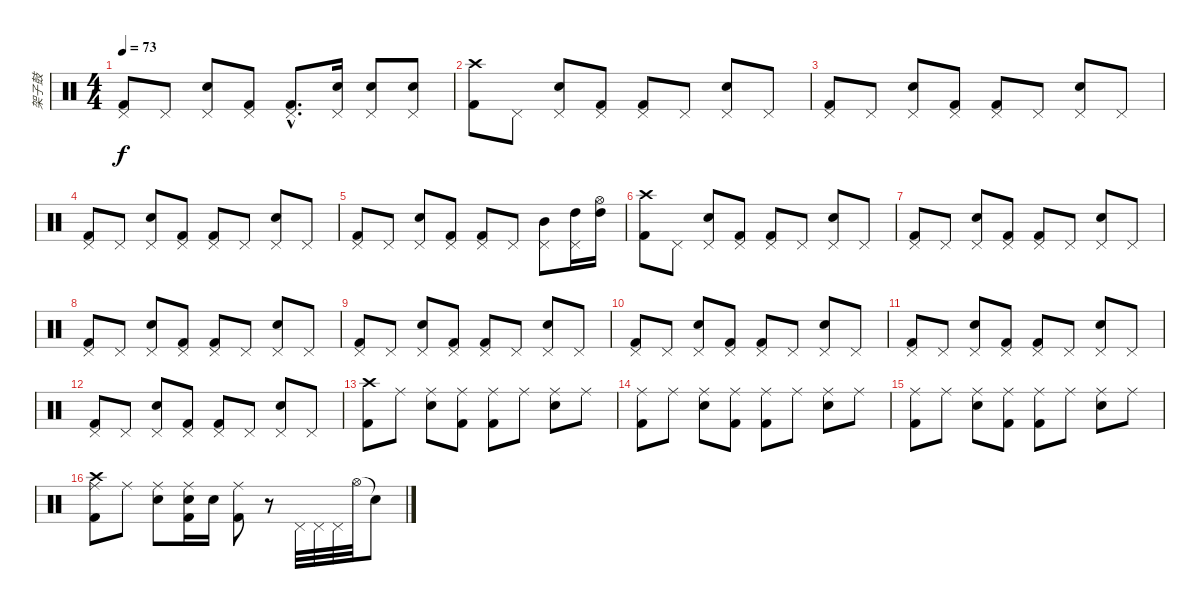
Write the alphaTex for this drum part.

\track ("架子鼓" "架子鼓") {instrument percussion}
\staff {score}
\articulation defaults
\ts (4 4)
\tempo 73
\clef neutral
\ks c
("Pedal Hi-Hat (hit)" "Kick (hit) 2").8{dy f} "Pedal Hi-Hat (hit)".8 ("Pedal Hi-Hat (hit)" "Electric Snare (hit)").8 ("Pedal Hi-Hat (hit)" "Kick (hit) 2").8 ("Pedal Hi-Hat (hit)"{hac} "Kick (hit) 2"{hac}).8{d} ("Pedal Hi-Hat (hit)" "Electric Snare (hit)").16 ("Pedal Hi-Hat (hit)" "Electric Snare (hit)").8 ("Pedal Hi-Hat (hit)" "Electric Snare (hit)").8 |
("Crash high (hit)" "Kick (hit) 2").8 "Pedal Hi-Hat (hit)".8 ("Pedal Hi-Hat (hit)" "Electric Snare (hit)").8 ("Pedal Hi-Hat (hit)" "Kick (hit) 2").8 ("Pedal Hi-Hat (hit)" "Kick (hit) 2").8 "Pedal Hi-Hat (hit)".8 ("Pedal Hi-Hat (hit)" "Electric Snare (hit)").8 "Pedal Hi-Hat (hit)".8 |
("Pedal Hi-Hat (hit)" "Kick (hit) 2").8 "Pedal Hi-Hat (hit)".8 ("Pedal Hi-Hat (hit)" "Electric Snare (hit)").8 ("Pedal Hi-Hat (hit)" "Kick (hit) 2").8 ("Pedal Hi-Hat (hit)" "Kick (hit) 2").8 "Pedal Hi-Hat (hit)".8 ("Pedal Hi-Hat (hit)" "Electric Snare (hit)").8 "Pedal Hi-Hat (hit)".8 |
("Pedal Hi-Hat (hit)" "Kick (hit) 2").8 "Pedal Hi-Hat (hit)".8 ("Pedal Hi-Hat (hit)" "Electric Snare (hit)").8 ("Pedal Hi-Hat (hit)" "Kick (hit) 2").8 ("Pedal Hi-Hat (hit)" "Kick (hit) 2").8 "Pedal Hi-Hat (hit)".8 ("Pedal Hi-Hat (hit)" "Electric Snare (hit)").8 "Pedal Hi-Hat (hit)".8 |
("Pedal Hi-Hat (hit)" "Kick (hit) 2").8 "Pedal Hi-Hat (hit)".8 ("Pedal Hi-Hat (hit)" "Electric Snare (hit)").8 ("Pedal Hi-Hat (hit)" "Kick (hit) 2").8 ("Pedal Hi-Hat (hit)" "Kick (hit) 2").8 "Pedal Hi-Hat (hit)".8 ("Pedal Hi-Hat (hit)" "Mid Tom (hit)").8 ("Pedal Hi-Hat (hit)" "High Tom (hit)").16 ("Hi-Hat (open)" "High Tom (hit)").16 |
("Crash high (hit)" "Kick (hit) 2").8 "Pedal Hi-Hat (hit)".8 ("Pedal Hi-Hat (hit)" "Electric Snare (hit)").8 ("Pedal Hi-Hat (hit)" "Kick (hit) 2").8 ("Pedal Hi-Hat (hit)" "Kick (hit) 2").8 "Pedal Hi-Hat (hit)".8 ("Pedal Hi-Hat (hit)" "Electric Snare (hit)").8 "Pedal Hi-Hat (hit)".8 |
("Pedal Hi-Hat (hit)" "Kick (hit) 2").8 "Pedal Hi-Hat (hit)".8 ("Pedal Hi-Hat (hit)" "Electric Snare (hit)").8 ("Pedal Hi-Hat (hit)" "Kick (hit) 2").8 ("Pedal Hi-Hat (hit)" "Kick (hit) 2").8 "Pedal Hi-Hat (hit)".8 ("Pedal Hi-Hat (hit)" "Electric Snare (hit)").8 "Pedal Hi-Hat (hit)".8 |
("Pedal Hi-Hat (hit)" "Kick (hit) 2").8 "Pedal Hi-Hat (hit)".8 ("Pedal Hi-Hat (hit)" "Electric Snare (hit)").8 ("Pedal Hi-Hat (hit)" "Kick (hit) 2").8 ("Pedal Hi-Hat (hit)" "Kick (hit) 2").8 "Pedal Hi-Hat (hit)".8 ("Pedal Hi-Hat (hit)" "Electric Snare (hit)").8 "Pedal Hi-Hat (hit)".8 |
("Pedal Hi-Hat (hit)" "Kick (hit) 2").8 "Pedal Hi-Hat (hit)".8 ("Pedal Hi-Hat (hit)" "Electric Snare (hit)").8 ("Pedal Hi-Hat (hit)" "Kick (hit) 2").8 ("Pedal Hi-Hat (hit)" "Kick (hit) 2").8 "Pedal Hi-Hat (hit)".8 ("Pedal Hi-Hat (hit)" "Electric Snare (hit)").8 "Pedal Hi-Hat (hit)".8 |
("Pedal Hi-Hat (hit)" "Kick (hit) 2").8 "Pedal Hi-Hat (hit)".8 ("Pedal Hi-Hat (hit)" "Electric Snare (hit)").8 ("Pedal Hi-Hat (hit)" "Kick (hit) 2").8 ("Pedal Hi-Hat (hit)" "Kick (hit) 2").8 "Pedal Hi-Hat (hit)".8 ("Pedal Hi-Hat (hit)" "Electric Snare (hit)").8 "Pedal Hi-Hat (hit)".8 |
("Pedal Hi-Hat (hit)" "Kick (hit) 2").8 "Pedal Hi-Hat (hit)".8 ("Pedal Hi-Hat (hit)" "Electric Snare (hit)").8 ("Pedal Hi-Hat (hit)" "Kick (hit) 2").8 ("Pedal Hi-Hat (hit)" "Kick (hit) 2").8 "Pedal Hi-Hat (hit)".8 ("Pedal Hi-Hat (hit)" "Electric Snare (hit)").8 "Pedal Hi-Hat (hit)".8 |
("Pedal Hi-Hat (hit)" "Kick (hit) 2").8 "Pedal Hi-Hat (hit)".8 ("Pedal Hi-Hat (hit)" "Electric Snare (hit)").8 ("Pedal Hi-Hat (hit)" "Kick (hit) 2").8 ("Pedal Hi-Hat (hit)" "Kick (hit) 2").8 "Pedal Hi-Hat (hit)".8 ("Pedal Hi-Hat (hit)" "Electric Snare (hit)").8 "Pedal Hi-Hat (hit)".8 |
("Crash high (hit)" "Kick (hit) 2").8 "Ride (middle)".8 ("Ride (middle)" "Electric Snare (hit)").8 ("Ride (middle)" "Kick (hit) 2").8 ("Ride (middle)" "Kick (hit) 2").8 "Ride (middle)".8 ("Ride (middle)" "Electric Snare (hit)").8 "Ride (middle)".8 |
("Ride (middle)" "Kick (hit) 2").8 "Ride (middle)".8 ("Ride (middle)" "Electric Snare (hit)").8 ("Ride (middle)" "Kick (hit) 2").8 ("Ride (middle)" "Kick (hit) 2").8 "Ride (middle)".8 ("Ride (middle)" "Electric Snare (hit)").8 "Ride (middle)".8 |
("Ride (middle)" "Kick (hit) 2").8 "Ride (middle)".8 ("Ride (middle)" "Electric Snare (hit)").8 ("Ride (middle)" "Kick (hit) 2").8 ("Ride (middle)" "Kick (hit) 2").8 "Ride (middle)".8 ("Ride (middle)" "Electric Snare (hit)").8 "Ride (middle)".8 |
("Ride (middle)" "Crash high (hit)" "Kick (hit) 2").8 "Ride (middle)".8 ("Ride (middle)" "Electric Snare (hit)").8 ("Ride (middle)" "Electric Snare (hit)" "Kick (hit) 2").16 "Electric Snare (hit)".16 ("Ride (middle)" "Kick (hit) 2").8 r.8 "Pedal Hi-Hat (hit)".32 "Pedal Hi-Hat (hit)".32 "Pedal Hi-Hat (hit)".32 "Hi-Hat (open)".32 "Snare (hit)"{t}.8
